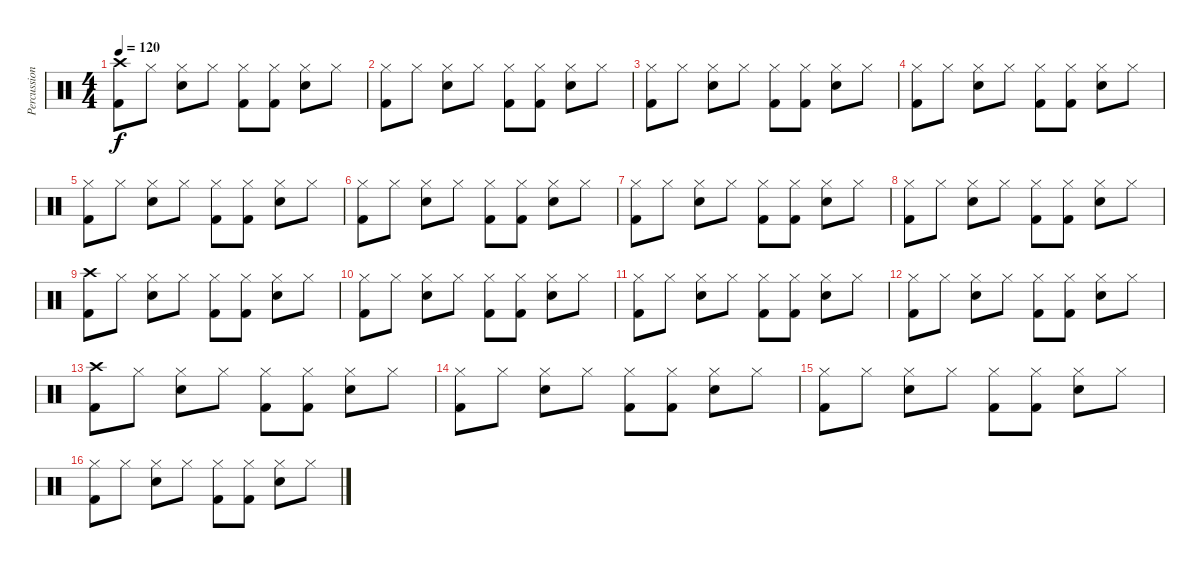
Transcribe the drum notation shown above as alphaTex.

\track ("Percussion" "Percussion") {instrument percussion}
\staff {score}
\articulation defaults
\ts (4 4)
\tempo 120
\clef neutral
\ks c
("Crash high (hit)" "Kick (hit) 2").8{dy f} "Hi-Hat (closed)".8 ("Hi-Hat (closed)" "Electric Snare (hit)").8 "Hi-Hat (closed)".8 ("Hi-Hat (closed)" "Kick (hit) 2").8 ("Hi-Hat (closed)" "Kick (hit) 2").8 ("Hi-Hat (closed)" "Electric Snare (hit)").8 "Hi-Hat (closed)".8 |
("Hi-Hat (closed)" "Kick (hit) 2").8 "Hi-Hat (closed)".8 ("Hi-Hat (closed)" "Electric Snare (hit)").8 "Hi-Hat (closed)".8 ("Hi-Hat (closed)" "Kick (hit) 2").8 ("Hi-Hat (closed)" "Kick (hit) 2").8 ("Hi-Hat (closed)" "Electric Snare (hit)").8 "Hi-Hat (closed)".8 |
("Hi-Hat (closed)" "Kick (hit) 2").8 "Hi-Hat (closed)".8 ("Hi-Hat (closed)" "Electric Snare (hit)").8 "Hi-Hat (closed)".8 ("Hi-Hat (closed)" "Kick (hit) 2").8 ("Hi-Hat (closed)" "Kick (hit) 2").8 ("Hi-Hat (closed)" "Electric Snare (hit)").8 "Hi-Hat (closed)".8 |
("Hi-Hat (closed)" "Kick (hit) 2").8 "Hi-Hat (closed)".8 ("Hi-Hat (closed)" "Electric Snare (hit)").8 "Hi-Hat (closed)".8 ("Hi-Hat (closed)" "Kick (hit) 2").8 ("Hi-Hat (closed)" "Kick (hit) 2").8 ("Hi-Hat (closed)" "Electric Snare (hit)").8 "Hi-Hat (closed)".8 |
("Hi-Hat (closed)" "Kick (hit) 2").8 "Hi-Hat (closed)".8 ("Hi-Hat (closed)" "Electric Snare (hit)").8 "Hi-Hat (closed)".8 ("Hi-Hat (closed)" "Kick (hit) 2").8 ("Hi-Hat (closed)" "Kick (hit) 2").8 ("Hi-Hat (closed)" "Electric Snare (hit)").8 "Hi-Hat (closed)".8 |
("Hi-Hat (closed)" "Kick (hit) 2").8 "Hi-Hat (closed)".8 ("Hi-Hat (closed)" "Electric Snare (hit)").8 "Hi-Hat (closed)".8 ("Hi-Hat (closed)" "Kick (hit) 2").8 ("Hi-Hat (closed)" "Kick (hit) 2").8 ("Hi-Hat (closed)" "Electric Snare (hit)").8 "Hi-Hat (closed)".8 |
("Hi-Hat (closed)" "Kick (hit) 2").8 "Hi-Hat (closed)".8 ("Hi-Hat (closed)" "Electric Snare (hit)").8 "Hi-Hat (closed)".8 ("Hi-Hat (closed)" "Kick (hit) 2").8 ("Hi-Hat (closed)" "Kick (hit) 2").8 ("Hi-Hat (closed)" "Electric Snare (hit)").8 "Hi-Hat (closed)".8 |
("Hi-Hat (closed)" "Kick (hit) 2").8 "Hi-Hat (closed)".8 ("Hi-Hat (closed)" "Electric Snare (hit)").8 "Hi-Hat (closed)".8 ("Hi-Hat (closed)" "Kick (hit) 2").8 ("Hi-Hat (closed)" "Kick (hit) 2").8 ("Hi-Hat (closed)" "Electric Snare (hit)").8 "Hi-Hat (closed)".8 |
("Crash high (hit)" "Kick (hit) 2").8 "Hi-Hat (closed)".8 ("Hi-Hat (closed)" "Electric Snare (hit)").8 "Hi-Hat (closed)".8 ("Hi-Hat (closed)" "Kick (hit) 2").8 ("Hi-Hat (closed)" "Kick (hit) 2").8 ("Hi-Hat (closed)" "Electric Snare (hit)").8 "Hi-Hat (closed)".8 |
("Hi-Hat (closed)" "Kick (hit) 2").8 "Hi-Hat (closed)".8 ("Hi-Hat (closed)" "Electric Snare (hit)").8 "Hi-Hat (closed)".8 ("Hi-Hat (closed)" "Kick (hit) 2").8 ("Hi-Hat (closed)" "Kick (hit) 2").8 ("Hi-Hat (closed)" "Electric Snare (hit)").8 "Hi-Hat (closed)".8 |
("Hi-Hat (closed)" "Kick (hit) 2").8 "Hi-Hat (closed)".8 ("Hi-Hat (closed)" "Electric Snare (hit)").8 "Hi-Hat (closed)".8 ("Hi-Hat (closed)" "Kick (hit) 2").8 ("Hi-Hat (closed)" "Kick (hit) 2").8 ("Hi-Hat (closed)" "Electric Snare (hit)").8 "Hi-Hat (closed)".8 |
("Hi-Hat (closed)" "Kick (hit) 2").8 "Hi-Hat (closed)".8 ("Hi-Hat (closed)" "Electric Snare (hit)").8 "Hi-Hat (closed)".8 ("Hi-Hat (closed)" "Kick (hit) 2").8 ("Hi-Hat (closed)" "Kick (hit) 2").8 ("Hi-Hat (closed)" "Electric Snare (hit)").8 "Hi-Hat (closed)".8 |
("Crash high (hit)" "Kick (hit) 2").8 "Hi-Hat (closed)".8 ("Hi-Hat (closed)" "Electric Snare (hit)").8 "Hi-Hat (closed)".8 ("Hi-Hat (closed)" "Kick (hit) 2").8 ("Hi-Hat (closed)" "Kick (hit) 2").8 ("Hi-Hat (closed)" "Electric Snare (hit)").8 "Hi-Hat (closed)".8 |
("Hi-Hat (closed)" "Kick (hit) 2").8 "Hi-Hat (closed)".8 ("Hi-Hat (closed)" "Electric Snare (hit)").8 "Hi-Hat (closed)".8 ("Hi-Hat (closed)" "Kick (hit) 2").8 ("Hi-Hat (closed)" "Kick (hit) 2").8 ("Hi-Hat (closed)" "Electric Snare (hit)").8 "Hi-Hat (closed)".8 |
("Hi-Hat (closed)" "Kick (hit) 2").8 "Hi-Hat (closed)".8 ("Hi-Hat (closed)" "Electric Snare (hit)").8 "Hi-Hat (closed)".8 ("Hi-Hat (closed)" "Kick (hit) 2").8 ("Hi-Hat (closed)" "Kick (hit) 2").8 ("Hi-Hat (closed)" "Electric Snare (hit)").8 "Hi-Hat (closed)".8 |
("Hi-Hat (closed)" "Kick (hit) 2").8 "Hi-Hat (closed)".8 ("Hi-Hat (closed)" "Electric Snare (hit)").8 "Hi-Hat (closed)".8 ("Hi-Hat (closed)" "Kick (hit) 2").8 ("Hi-Hat (closed)" "Kick (hit) 2").8 ("Hi-Hat (closed)" "Electric Snare (hit)").8 "Hi-Hat (closed)".8
